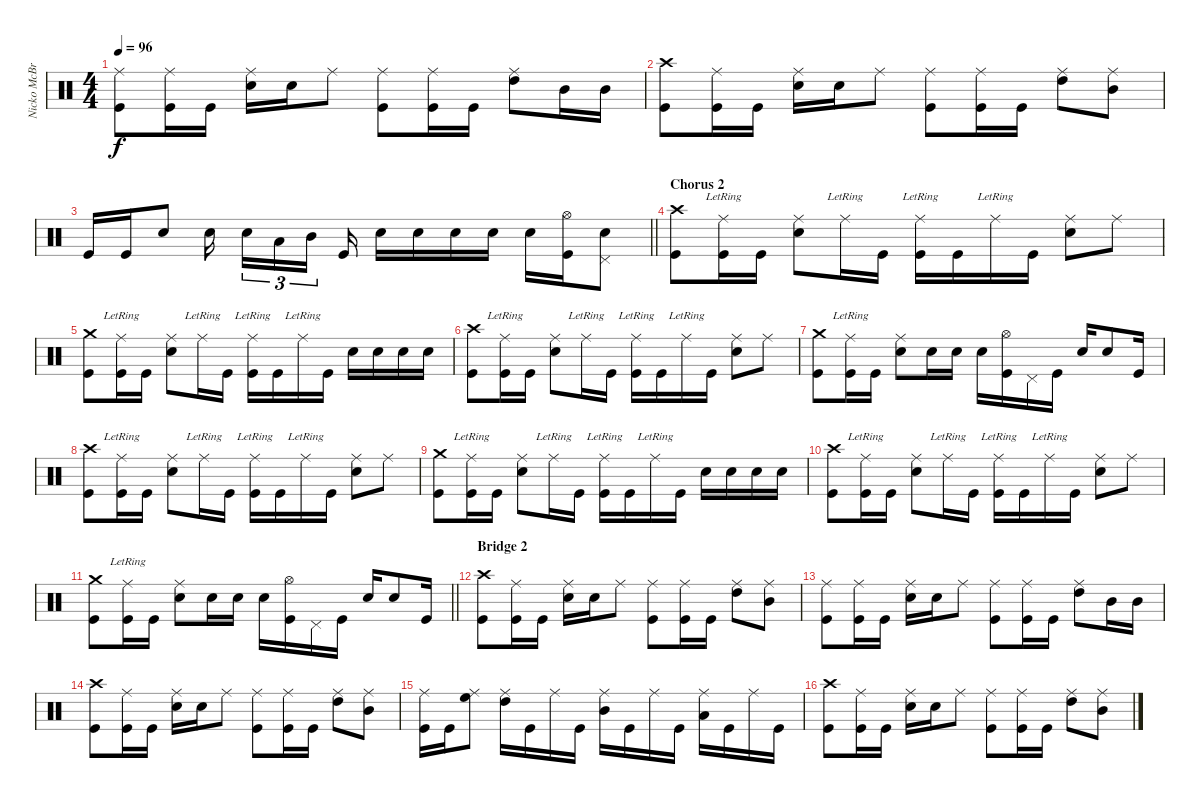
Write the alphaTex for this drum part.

\track ("Nicko McBrain" "Nicko McBr") {instrument percussion}
\staff {score}
\articulation defaults
\ts (4 4)
\tempo 96
\clef neutral
\ks c
("Ride (middle)" "Kick (hit)").8{dy f} ("Ride (middle)" "Kick (hit)").16 "Kick (hit)".16 ("Ride (middle)" "Electric Snare (hit)").16 "Electric Snare (hit)".16 "Ride (middle)".8 ("Ride (middle)" "Kick (hit)").8 ("Ride (middle)" "Kick (hit)").16 "Kick (hit)".16 ("Ride (middle)" "High Tom (hit)").8 "Mid Tom (hit)".16 "Mid Tom (hit)".16 |
("Crash high (hit)" "Kick (hit)").8 ("Ride (middle)" "Kick (hit)").16 "Kick (hit)".16 ("Ride (middle)" "Electric Snare (hit)").16 "Electric Snare (hit)".16 "Ride (middle)".8 ("Ride (middle)" "Kick (hit)").8 ("Ride (middle)" "Kick (hit)").16 "Kick (hit)".16 ("Ride (middle)" "High Tom (hit)").8 ("Ride (middle)" "Mid Tom (hit)").8 |
\barLineRight lightlight "Kick (hit)".16 "Kick (hit)".16 "Electric Snare (hit)".8 "Electric Snare (hit)".16{beam splitsecondary} "Electric Snare (hit)".16{tu (3 2)} "Low Tom (hit)".16{tu (3 2)} "Mid Tom (hit)".16{tu (3 2) beam splitsecondary} "Kick (hit)".16 "Electric Snare (hit)".16 "Electric Snare (hit)".16 "Electric Snare (hit)".16 "Electric Snare (hit)".16 "Electric Snare (hit)".16
("Hi-Hat (open)" "Kick (hit)").16 ("Electric Snare (hit)" "Pedal Hi-Hat (hit)").8 |
\section ("" "Chorus 2")
("Crash high (hit)" "Kick (hit)").8 ("Ride (middle)"{lr} "Kick (hit)").16 "Kick (hit)".16 ("Ride (middle)" "Electric Snare (hit)").8 "Ride (middle)"{lr}.16 "Kick (hit)".16 ("Ride (middle)"{lr} "Kick (hit)").16 "Kick (hit)".16 "Ride (middle)"{lr}.16 "Kick (hit)".16 ("Ride (middle)" "Electric Snare (hit)").8 "Ride (middle)".8 |
("Crash medium (hit)" "Kick (hit)").8 ("Ride (middle)"{lr} "Kick (hit)").16 "Kick (hit)".16 ("Ride (middle)" "Electric Snare (hit)").8 "Ride (middle)"{lr}.16 "Kick (hit)".16 ("Ride (middle)"{lr} "Kick (hit)").16 "Kick (hit)".16 "Ride (middle)"{lr}.16 "Kick (hit)".16 "Electric Snare (hit)".16 "Electric Snare (hit)".16 "Electric Snare (hit)".16 "Electric Snare (hit)".16 |
("Crash high (hit)" "Kick (hit)").8 ("Ride (middle)"{lr} "Kick (hit)").16 "Kick (hit)".16 ("Ride (middle)" "Electric Snare (hit)").8 "Ride (middle)"{lr}.16 "Kick (hit)".16 ("Ride (middle)"{lr} "Kick (hit)").16 "Kick (hit)".16 "Ride (middle)"{lr}.16 "Kick (hit)".16 ("Ride (middle)" "Electric Snare (hit)").8 "Ride (middle)".8 |
("Crash medium (hit)" "Kick (hit)").8 ("Ride (middle)"{lr} "Kick (hit)").16 "Kick (hit)".16 ("Ride (middle)" "Electric Snare (hit)").8 "Electric Snare (hit)".16 "Electric Snare (hit)".16 "Electric Snare (hit)".16 ("Hi-Hat (open)" "Kick (hit)").16 "Pedal Hi-Hat (hit)".16 "Kick (hit)".16 "Electric Snare (hit)".16 "Electric Snare (hit)".8 "Kick (hit)".16 |
("Crash high (hit)" "Kick (hit)").8 ("Ride (middle)"{lr} "Kick (hit)").16 "Kick (hit)".16 ("Ride (middle)" "Electric Snare (hit)").8 "Ride (middle)"{lr}.16 "Kick (hit)".16 ("Ride (middle)"{lr} "Kick (hit)").16 "Kick (hit)".16 "Ride (middle)"{lr}.16 "Kick (hit)".16 ("Ride (middle)" "Electric Snare (hit)").8 "Ride (middle)".8 |
("Crash medium (hit)" "Kick (hit)").8 ("Ride (middle)"{lr} "Kick (hit)").16 "Kick (hit)".16 ("Ride (middle)" "Electric Snare (hit)").8 "Ride (middle)"{lr}.16 "Kick (hit)".16 ("Ride (middle)"{lr} "Kick (hit)").16 "Kick (hit)".16 "Ride (middle)"{lr}.16 "Kick (hit)".16 "Electric Snare (hit)".16 "Electric Snare (hit)".16 "Electric Snare (hit)".16 "Electric Snare (hit)".16 |
("Crash high (hit)" "Kick (hit)").8 ("Ride (middle)"{lr} "Kick (hit)").16 "Kick (hit)".16 ("Ride (middle)" "Electric Snare (hit)").8 "Ride (middle)"{lr}.16 "Kick (hit)".16 ("Ride (middle)"{lr} "Kick (hit)").16 "Kick (hit)".16 "Ride (middle)"{lr}.16 "Kick (hit)".16 ("Ride (middle)" "Electric Snare (hit)").8 "Ride (middle)".8 |
\barLineRight lightlight
("Crash medium (hit)" "Kick (hit)").8 ("Ride (middle)"{lr} "Kick (hit)").16 "Kick (hit)".16 ("Ride (middle)" "Electric Snare (hit)").8 "Electric Snare (hit)".16 "Electric Snare (hit)".16 "Electric Snare (hit)".16 ("Hi-Hat (open)" "Kick (hit)").16 "Pedal Hi-Hat (hit)".16 "Kick (hit)".16 "Electric Snare (hit)".16 "Electric Snare (hit)".8 "Kick (hit)".16 |
\section ("" "Bridge 2")
("Crash high (hit)" "Kick (hit)").8 ("Ride (middle)" "Kick (hit)").16 "Kick (hit)".16 ("Ride (middle)" "Electric Snare (hit)").16 "Electric Snare (hit)".16 "Ride (middle)".8 ("Ride (middle)" "Kick (hit)").8 ("Ride (middle)" "Kick (hit)").16 "Kick (hit)".16 ("Ride (middle)" "High Tom (hit)").8 ("Ride (middle)" "Mid Tom (hit)").8 |
("Ride (middle)" "Kick (hit)").8 ("Ride (middle)" "Kick (hit)").16 "Kick (hit)".16 ("Ride (middle)" "Electric Snare (hit)").16 "Electric Snare (hit)".16 "Ride (middle)".8 ("Ride (middle)" "Kick (hit)").8 ("Ride (middle)" "Kick (hit)").16 "Kick (hit)".16 ("Ride (middle)" "High Tom (hit)").8 "Mid Tom (hit)".16 "Mid Tom (hit)".16 |
("Crash high (hit)" "Kick (hit)").8 ("Ride (middle)" "Kick (hit)").16 "Kick (hit)".16 ("Ride (middle)" "Electric Snare (hit)").16 "Electric Snare (hit)".16 "Ride (middle)".8 ("Ride (middle)" "Kick (hit)").8 ("Ride (middle)" "Kick (hit)").16 "Kick (hit)".16 ("Ride (middle)" "High Tom (hit)").8 ("Ride (middle)" "Mid Tom (hit)").8 |
("Ride (middle)" "Kick (hit)").16 "Kick (hit)".16 ("Ride (middle)" "High Floor Tom (hit)").8 ("Ride (middle)" "High Tom (hit)").16 "Kick (hit)".16 "Ride (middle)".16 "Kick (hit)".16 ("Ride (middle)" "Mid Tom (hit)").16 "Kick (hit)".16 "Ride (middle)".16 "Kick (hit)".16 ("Ride (middle)" "Low Tom (hit)").16 "Kick (hit)".16 "Ride (middle)".16 "Kick (hit)".16 |
("Crash high (hit)" "Kick (hit)").8 ("Ride (middle)" "Kick (hit)").16 "Kick (hit)".16 ("Ride (middle)" "Electric Snare (hit)").16 "Electric Snare (hit)".16 "Ride (middle)".8 ("Ride (middle)" "Kick (hit)").8 ("Ride (middle)" "Kick (hit)").16 "Kick (hit)".16 ("Ride (middle)" "High Tom (hit)").8 ("Ride (middle)" "Mid Tom (hit)").8
